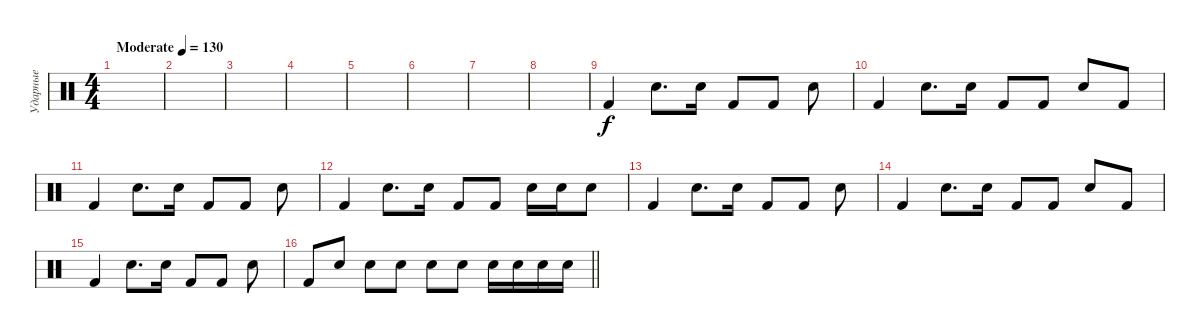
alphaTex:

\track ("Ударные" "Ударные") {instrument percussion}
\staff {score}
\articulation defaults
\ts (4 4)
\tempo (130 "Moderate")
\clef neutral
\ks c
|
|
|
|
|
|
|
|
"Kick (hit) 2".4 "Electric Snare (hit)".8{d} "Electric Snare (hit)".16 "Kick (hit) 2".8 "Kick (hit) 2".8 "Electric Snare (hit)".8 |
"Kick (hit) 2".4 "Electric Snare (hit)".8{d} "Electric Snare (hit)".16 "Kick (hit) 2".8 "Kick (hit) 2".8 "Electric Snare (hit)".8 "Kick (hit) 2".8 |
"Kick (hit) 2".4 "Electric Snare (hit)".8{d} "Electric Snare (hit)".16 "Kick (hit) 2".8 "Kick (hit) 2".8 "Electric Snare (hit)".8 |
"Kick (hit) 2".4 "Electric Snare (hit)".8{d} "Electric Snare (hit)".16 "Kick (hit) 2".8 "Kick (hit) 2".8 "Electric Snare (hit)".16 "Electric Snare (hit)".16 "Electric Snare (hit)".8 |
"Kick (hit) 2".4 "Electric Snare (hit)".8{d} "Electric Snare (hit)".16 "Kick (hit) 2".8 "Kick (hit) 2".8 "Electric Snare (hit)".8 |
"Kick (hit) 2".4 "Electric Snare (hit)".8{d} "Electric Snare (hit)".16 "Kick (hit) 2".8 "Kick (hit) 2".8 "Electric Snare (hit)".8 "Kick (hit) 2".8 |
"Kick (hit) 2".4 "Electric Snare (hit)".8{d} "Electric Snare (hit)".16 "Kick (hit) 2".8 "Kick (hit) 2".8 "Electric Snare (hit)".8 |
\barLineRight lightlight "Kick (hit) 2".8 "Electric Snare (hit)".8 "Electric Snare (hit)".8 "Electric Snare (hit)".8 "Electric Snare (hit)".8 "Electric Snare (hit)".8 "Electric Snare (hit)".16 "Electric Snare (hit)".16 "Electric Snare (hit)".16 "Electric Snare (hit)".16
